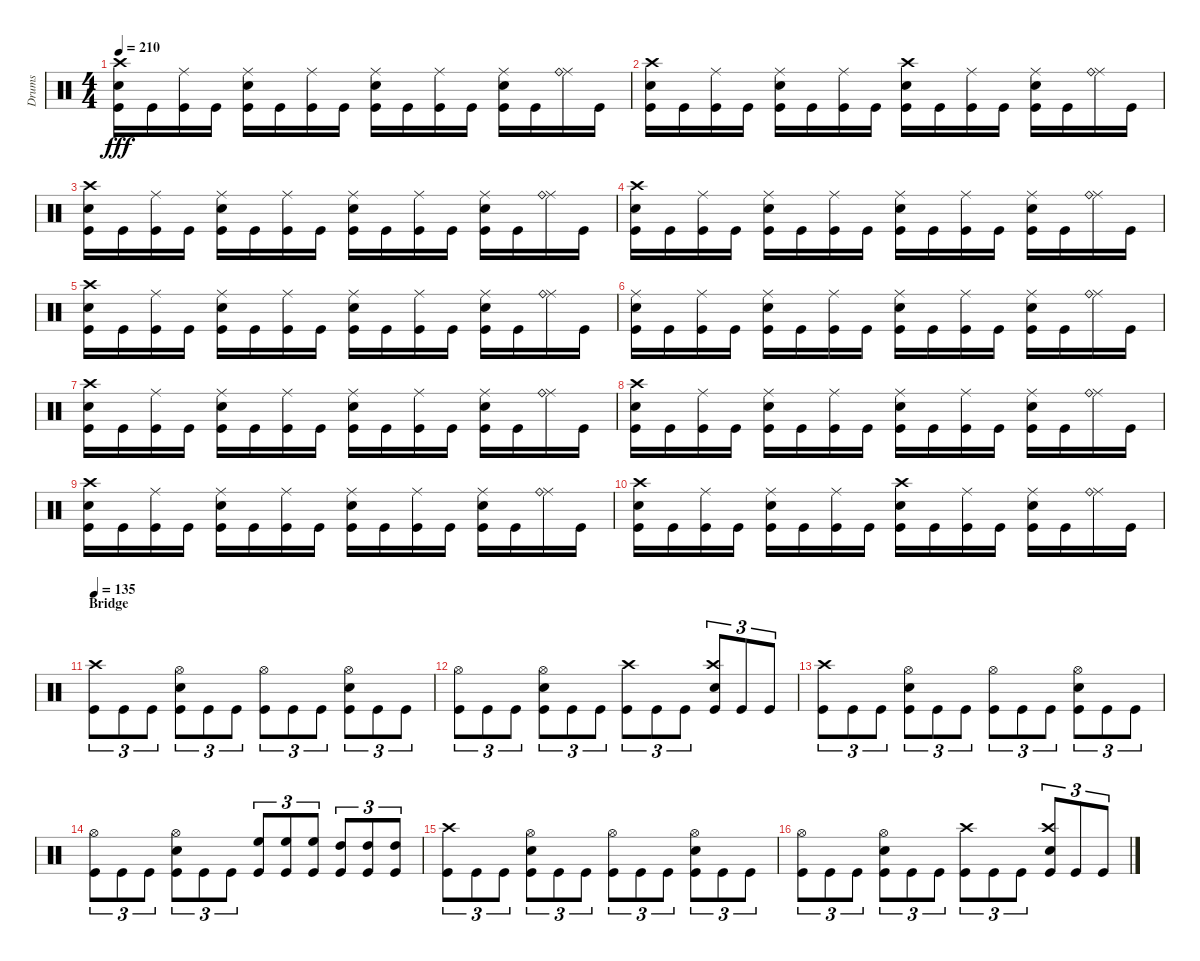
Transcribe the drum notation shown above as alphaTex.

\track ("Drums" "Drums") {instrument percussion}
\staff {score}
\articulation defaults
\ts (4 4)
\tempo 210
\clef neutral
\ks c
("Snare (hit) 2" "Crash high (hit)" "Kick (hit)").16{dy fff} "Kick (hit)".16 ("Ride (middle)" "Kick (hit)").16 "Kick (hit)".16 ("Ride (middle)" "Snare (hit) 2" "Kick (hit)").16 "Kick (hit)".16 ("Ride (middle)" "Kick (hit)").16 "Kick (hit)".16 ("Ride (middle)" "Snare (hit) 2" "Kick (hit)").16 "Kick (hit)".16 ("Ride (middle)" "Kick (hit)").16 "Kick (hit)".16 ("Ride (middle)" "Snare (hit) 2" "Kick (hit)").16 "Kick (hit)".16 ("Ride (middle)" "Ride (bell)").16 "Kick (hit)".16 |
("Snare (hit) 2" "Crash high (hit)" "Kick (hit)").16 "Kick (hit)".16 ("Ride (middle)" "Kick (hit)").16 "Kick (hit)".16 ("Ride (middle)" "Snare (hit) 2" "Kick (hit)").16 "Kick (hit)".16 ("Ride (middle)" "Kick (hit)").16 "Kick (hit)".16 ("Snare (hit) 2" "Crash high (hit)" "Kick (hit)").16 "Kick (hit)".16 ("Ride (middle)" "Kick (hit)").16 "Kick (hit)".16 ("Ride (middle)" "Snare (hit) 2" "Kick (hit)").16 "Kick (hit)".16 ("Ride (middle)" "Ride (bell)").16 "Kick (hit)".16 |
("Snare (hit) 2" "Crash high (hit)" "Kick (hit)").16 "Kick (hit)".16 ("Ride (middle)" "Kick (hit)").16 "Kick (hit)".16 ("Ride (middle)" "Snare (hit) 2" "Kick (hit)").16 "Kick (hit)".16 ("Ride (middle)" "Kick (hit)").16 "Kick (hit)".16 ("Ride (middle)" "Snare (hit) 2" "Kick (hit)").16 "Kick (hit)".16 ("Ride (middle)" "Kick (hit)").16 "Kick (hit)".16 ("Ride (middle)" "Snare (hit) 2" "Kick (hit)").16 "Kick (hit)".16 ("Ride (middle)" "Ride (bell)").16 "Kick (hit)".16 |
("Snare (hit) 2" "Crash high (hit)" "Kick (hit)").16 "Kick (hit)".16 ("Ride (middle)" "Kick (hit)").16 "Kick (hit)".16 ("Ride (middle)" "Snare (hit) 2" "Kick (hit)").16 "Kick (hit)".16 ("Ride (middle)" "Kick (hit)").16 "Kick (hit)".16 ("Ride (middle)" "Snare (hit) 2" "Kick (hit)").16 "Kick (hit)".16 ("Ride (middle)" "Kick (hit)").16 "Kick (hit)".16 ("Ride (middle)" "Snare (hit) 2" "Kick (hit)").16 "Kick (hit)".16 ("Ride (middle)" "Ride (bell)").16 "Kick (hit)".16 |
("Snare (hit) 2" "Crash high (hit)" "Kick (hit)").16 "Kick (hit)".16 ("Ride (middle)" "Kick (hit)").16 "Kick (hit)".16 ("Ride (middle)" "Snare (hit) 2" "Kick (hit)").16 "Kick (hit)".16 ("Ride (middle)" "Kick (hit)").16 "Kick (hit)".16 ("Ride (middle)" "Snare (hit) 2" "Kick (hit)").16 "Kick (hit)".16 ("Ride (middle)" "Kick (hit)").16 "Kick (hit)".16 ("Ride (middle)" "Snare (hit) 2" "Kick (hit)").16 "Kick (hit)".16 ("Ride (middle)" "Ride (bell)").16 "Kick (hit)".16 |
("Ride (middle)" "Snare (hit) 2" "Kick (hit)").16 "Kick (hit)".16 ("Ride (middle)" "Kick (hit)").16 "Kick (hit)".16 ("Ride (middle)" "Snare (hit) 2" "Kick (hit)").16 "Kick (hit)".16 ("Ride (middle)" "Kick (hit)").16 "Kick (hit)".16 ("Ride (middle)" "Snare (hit) 2" "Kick (hit)").16 "Kick (hit)".16 ("Ride (middle)" "Kick (hit)").16 "Kick (hit)".16 ("Ride (middle)" "Snare (hit) 2" "Kick (hit)").16 "Kick (hit)".16 ("Ride (middle)" "Ride (bell)").16 "Kick (hit)".16 |
("Snare (hit) 2" "Crash high (hit)" "Kick (hit)").16 "Kick (hit)".16 ("Ride (middle)" "Kick (hit)").16 "Kick (hit)".16 ("Ride (middle)" "Snare (hit) 2" "Kick (hit)").16 "Kick (hit)".16 ("Ride (middle)" "Kick (hit)").16 "Kick (hit)".16 ("Ride (middle)" "Snare (hit) 2" "Kick (hit)").16 "Kick (hit)".16 ("Ride (middle)" "Kick (hit)").16 "Kick (hit)".16 ("Ride (middle)" "Snare (hit) 2" "Kick (hit)").16 "Kick (hit)".16 ("Ride (middle)" "Ride (bell)").16 "Kick (hit)".16 |
("Snare (hit) 2" "Crash high (hit)" "Kick (hit)").16 "Kick (hit)".16 ("Ride (middle)" "Kick (hit)").16 "Kick (hit)".16 ("Ride (middle)" "Snare (hit) 2" "Kick (hit)").16 "Kick (hit)".16 ("Ride (middle)" "Kick (hit)").16 "Kick (hit)".16 ("Ride (middle)" "Snare (hit) 2" "Kick (hit)").16 "Kick (hit)".16 ("Ride (middle)" "Kick (hit)").16 "Kick (hit)".16 ("Ride (middle)" "Snare (hit) 2" "Kick (hit)").16 "Kick (hit)".16 ("Ride (middle)" "Ride (bell)").16 "Kick (hit)".16 |
("Snare (hit) 2" "Crash high (hit)" "Kick (hit)").16 "Kick (hit)".16 ("Ride (middle)" "Kick (hit)").16 "Kick (hit)".16 ("Ride (middle)" "Snare (hit) 2" "Kick (hit)").16 "Kick (hit)".16 ("Ride (middle)" "Kick (hit)").16 "Kick (hit)".16 ("Ride (middle)" "Snare (hit) 2" "Kick (hit)").16 "Kick (hit)".16 ("Ride (middle)" "Kick (hit)").16 "Kick (hit)".16 ("Ride (middle)" "Snare (hit) 2" "Kick (hit)").16 "Kick (hit)".16 ("Ride (middle)" "Ride (bell)").16 "Kick (hit)".16 |
("Snare (hit) 2" "Crash high (hit)" "Kick (hit)").16 "Kick (hit)".16 ("Ride (middle)" "Kick (hit)").16 "Kick (hit)".16 ("Ride (middle)" "Snare (hit) 2" "Kick (hit)").16 "Kick (hit)".16 ("Ride (middle)" "Kick (hit)").16 "Kick (hit)".16 ("Snare (hit) 2" "Crash high (hit)" "Kick (hit)").16 "Kick (hit)".16 ("Ride (middle)" "Kick (hit)").16 "Kick (hit)".16 ("Ride (middle)" "Snare (hit) 2" "Kick (hit)").16 "Kick (hit)".16 ("Ride (middle)" "Ride (bell)").16 "Kick (hit)".16 |
\section ("" "Bridge")
\tempo 135
("Crash high (hit)" "Kick (hit)").8{tu (3 2)} "Kick (hit)".8{tu (3 2)} "Kick (hit)".8{tu (3 2)} ("Hi-Hat (open)" "Snare (hit) 2" "Kick (hit)").8{tu (3 2)} "Kick (hit)".8{tu (3 2)} "Kick (hit)".8{tu (3 2)} ("Hi-Hat (open)" "Kick (hit)").8{tu (3 2)} "Kick (hit)".8{tu (3 2)} "Kick (hit)".8{tu (3 2)} ("Hi-Hat (open)" "Snare (hit) 2" "Kick (hit)").8{tu (3 2)} "Kick (hit)".8{tu (3 2)} "Kick (hit)".8{tu (3 2)} |
("Hi-Hat (open)" "Kick (hit)").8{tu (3 2)} "Kick (hit)".8{tu (3 2)} "Kick (hit)".8{tu (3 2)} ("Hi-Hat (open)" "Snare (hit) 2" "Kick (hit)").8{tu (3 2)} "Kick (hit)".8{tu (3 2)} "Kick (hit)".8{tu (3 2)} ("Crash high (hit)" "Kick (hit)").8{tu (3 2)} "Kick (hit)".8{tu (3 2)} "Kick (hit)".8{tu (3 2)} ("Snare (hit) 2" "Crash high (hit)" "Kick (hit)").8{tu (3 2)} "Kick (hit)".8{tu (3 2)} "Kick (hit)".8{tu (3 2)} |
("Crash high (hit)" "Kick (hit)").8{tu (3 2)} "Kick (hit)".8{tu (3 2)} "Kick (hit)".8{tu (3 2)} ("Hi-Hat (open)" "Snare (hit) 2" "Kick (hit)").8{tu (3 2)} "Kick (hit)".8{tu (3 2)} "Kick (hit)".8{tu (3 2)} ("Hi-Hat (open)" "Kick (hit)").8{tu (3 2)} "Kick (hit)".8{tu (3 2)} "Kick (hit)".8{tu (3 2)} ("Hi-Hat (open)" "Snare (hit) 2" "Kick (hit)").8{tu (3 2)} "Kick (hit)".8{tu (3 2)} "Kick (hit)".8{tu (3 2)} |
("Hi-Hat (open)" "Kick (hit)").8{tu (3 2)} "Kick (hit)".8{tu (3 2)} "Kick (hit)".8{tu (3 2)} ("Hi-Hat (open)" "Snare (hit) 2" "Kick (hit)").8{tu (3 2)} "Kick (hit)".8{tu (3 2)} "Kick (hit)".8{tu (3 2)} ("High Floor Tom (hit)" "Kick (hit)").8{tu (3 2)} ("High Floor Tom (hit)" "Kick (hit)").8{tu (3 2)} ("High Floor Tom (hit)" "Kick (hit)").8{tu (3 2)} ("High Tom (hit)" "Kick (hit)").8{tu (3 2)} ("High Tom (hit)" "Kick (hit)").8{tu (3 2)} ("High Tom (hit)" "Kick (hit)").8{tu (3 2)} |
("Crash high (hit)" "Kick (hit)").8{tu (3 2)} "Kick (hit)".8{tu (3 2)} "Kick (hit)".8{tu (3 2)} ("Hi-Hat (open)" "Snare (hit) 2" "Kick (hit)").8{tu (3 2)} "Kick (hit)".8{tu (3 2)} "Kick (hit)".8{tu (3 2)} ("Hi-Hat (open)" "Kick (hit)").8{tu (3 2)} "Kick (hit)".8{tu (3 2)} "Kick (hit)".8{tu (3 2)} ("Hi-Hat (open)" "Snare (hit) 2" "Kick (hit)").8{tu (3 2)} "Kick (hit)".8{tu (3 2)} "Kick (hit)".8{tu (3 2)} |
("Hi-Hat (open)" "Kick (hit)").8{tu (3 2)} "Kick (hit)".8{tu (3 2)} "Kick (hit)".8{tu (3 2)} ("Hi-Hat (open)" "Snare (hit) 2" "Kick (hit)").8{tu (3 2)} "Kick (hit)".8{tu (3 2)} "Kick (hit)".8{tu (3 2)} ("Crash high (hit)" "Kick (hit)").8{tu (3 2)} "Kick (hit)".8{tu (3 2)} "Kick (hit)".8{tu (3 2)} ("Snare (hit) 2" "Crash high (hit)" "Kick (hit)").8{tu (3 2)} "Kick (hit)".8{tu (3 2)} "Kick (hit)".8{tu (3 2)}
